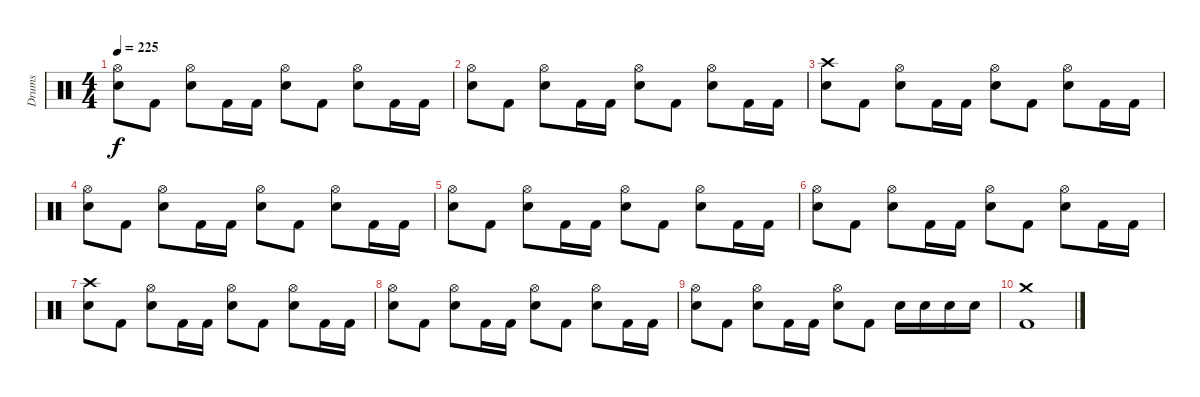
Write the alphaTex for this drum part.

\track ("Drums" "Drums") {instrument percussion}
\staff {score}
\articulation defaults
\ts (4 4)
\tempo 225
\clef neutral
\ks c
("Hi-Hat (open)" "Electric Snare (hit)").8{dy f} "Kick (hit) 2".8 ("Hi-Hat (open)" "Electric Snare (hit)").8 "Kick (hit) 2".16 "Kick (hit) 2".16 ("Hi-Hat (open)" "Electric Snare (hit)").8 "Kick (hit) 2".8 ("Hi-Hat (open)" "Electric Snare (hit)").8 "Kick (hit) 2".16 "Kick (hit) 2".16 |
("Hi-Hat (open)" "Electric Snare (hit)").8 "Kick (hit) 2".8 ("Hi-Hat (open)" "Electric Snare (hit)").8 "Kick (hit) 2".16 "Kick (hit) 2".16 ("Hi-Hat (open)" "Electric Snare (hit)").8 "Kick (hit) 2".8 ("Hi-Hat (open)" "Electric Snare (hit)").8 "Kick (hit) 2".16 "Kick (hit) 2".16 |
("Crash high (hit)" "Electric Snare (hit)").8 "Kick (hit) 2".8 ("Hi-Hat (open)" "Electric Snare (hit)").8 "Kick (hit) 2".16 "Kick (hit) 2".16 ("Hi-Hat (open)" "Electric Snare (hit)").8 "Kick (hit) 2".8 ("Hi-Hat (open)" "Electric Snare (hit)").8 "Kick (hit) 2".16 "Kick (hit) 2".16 |
("Hi-Hat (open)" "Electric Snare (hit)").8 "Kick (hit) 2".8 ("Hi-Hat (open)" "Electric Snare (hit)").8 "Kick (hit) 2".16 "Kick (hit) 2".16 ("Hi-Hat (open)" "Electric Snare (hit)").8 "Kick (hit) 2".8 ("Hi-Hat (open)" "Electric Snare (hit)").8 "Kick (hit) 2".16 "Kick (hit) 2".16 |
("Hi-Hat (open)" "Electric Snare (hit)").8 "Kick (hit) 2".8 ("Hi-Hat (open)" "Electric Snare (hit)").8 "Kick (hit) 2".16 "Kick (hit) 2".16 ("Hi-Hat (open)" "Electric Snare (hit)").8 "Kick (hit) 2".8 ("Hi-Hat (open)" "Electric Snare (hit)").8 "Kick (hit) 2".16 "Kick (hit) 2".16 |
("Hi-Hat (open)" "Electric Snare (hit)").8 "Kick (hit) 2".8 ("Hi-Hat (open)" "Electric Snare (hit)").8 "Kick (hit) 2".16 "Kick (hit) 2".16 ("Hi-Hat (open)" "Electric Snare (hit)").8 "Kick (hit) 2".8 ("Hi-Hat (open)" "Electric Snare (hit)").8 "Kick (hit) 2".16 "Kick (hit) 2".16 |
("Crash high (hit)" "Electric Snare (hit)").8 "Kick (hit) 2".8 ("Hi-Hat (open)" "Electric Snare (hit)").8 "Kick (hit) 2".16 "Kick (hit) 2".16 ("Hi-Hat (open)" "Electric Snare (hit)").8 "Kick (hit) 2".8 ("Hi-Hat (open)" "Electric Snare (hit)").8 "Kick (hit) 2".16 "Kick (hit) 2".16 |
("Hi-Hat (open)" "Electric Snare (hit)").8 "Kick (hit) 2".8 ("Hi-Hat (open)" "Electric Snare (hit)").8 "Kick (hit) 2".16 "Kick (hit) 2".16 ("Hi-Hat (open)" "Electric Snare (hit)").8 "Kick (hit) 2".8 ("Hi-Hat (open)" "Electric Snare (hit)").8 "Kick (hit) 2".16 "Kick (hit) 2".16 |
("Hi-Hat (open)" "Electric Snare (hit)").8 "Kick (hit) 2".8 ("Hi-Hat (open)" "Electric Snare (hit)").8 "Kick (hit) 2".16 "Kick (hit) 2".16 ("Hi-Hat (open)" "Electric Snare (hit)").8 "Kick (hit) 2".8 "Electric Snare (hit)".16 "Electric Snare (hit)".16 "Electric Snare (hit)".16 "Electric Snare (hit)".16 |
("Crash medium (hit)" "Kick (hit) 2").1
